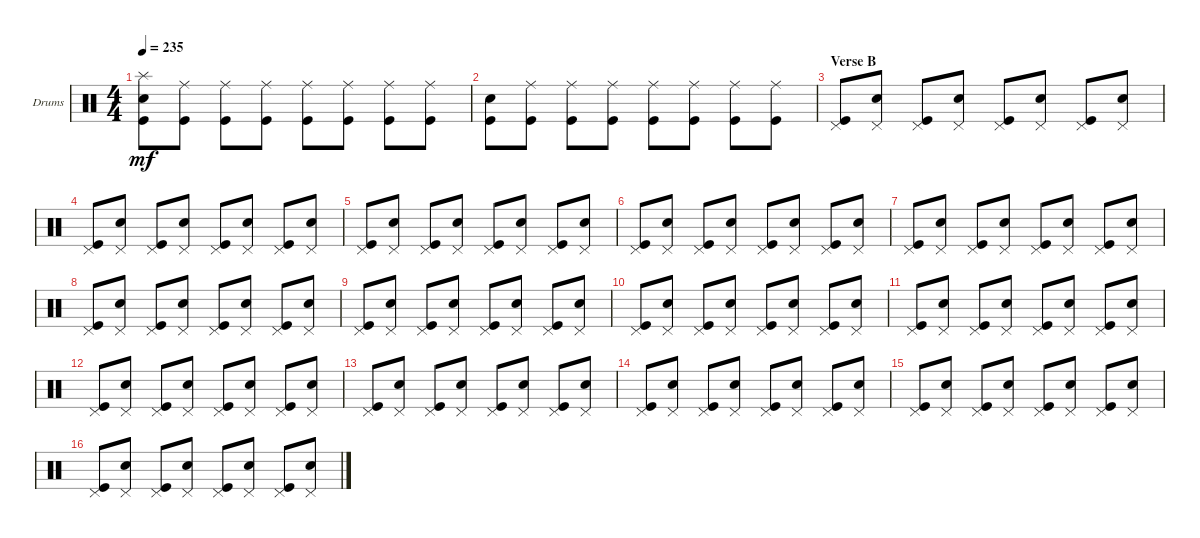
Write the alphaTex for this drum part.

\defaultSystemsLayout 4
\bracketExtendMode groupsimilarinstruments
\firstSystemTrackNameOrientation horizontal
\otherSystemsTrackNameOrientation horizontal
\track ("Drumkit" "Drums") {instrument percussion}
\staff {score}
\articulation defaults
\ts (4 4)
\tempo 235
\clef neutral
\scale
0.333333
\ks c
("Kick (hit)" "Snare (hit) 2" "Splash (hit)").8{dy mf} ("Kick (hit)" "Ride (middle)").8 ("Kick (hit)" "Ride (middle)").8 ("Kick (hit)" "Ride (middle)").8 ("Kick (hit)" "Ride (middle)").8 ("Kick (hit)" "Ride (middle)").8 ("Kick (hit)" "Ride (middle)").8 ("Kick (hit)" "Ride (middle)").8 |
\scale
0.333333 ("Kick (hit)" "Snare (hit) 2").8 ("Kick (hit)" "Ride (middle)").8 ("Kick (hit)" "Ride (middle)").8 ("Kick (hit)" "Ride (middle)").8 ("Kick (hit)" "Ride (middle)").8 ("Kick (hit)" "Ride (middle)").8 ("Kick (hit)" "Ride (middle)").8 ("Kick (hit)" "Ride (middle)").8 |
\section ("" "Verse B")
\scale
0.333333 ("Kick (hit)" "Pedal Hi-Hat (hit)").8 ("Snare (hit) 2" "Pedal Hi-Hat (hit)").8 ("Kick (hit)" "Pedal Hi-Hat (hit)").8 ("Snare (hit) 2" "Pedal Hi-Hat (hit)").8 ("Kick (hit)" "Pedal Hi-Hat (hit)").8 ("Snare (hit) 2" "Pedal Hi-Hat (hit)").8 ("Kick (hit)" "Pedal Hi-Hat (hit)").8 ("Snare (hit) 2" "Pedal Hi-Hat (hit)").8 |
\scale
0.333333 ("Kick (hit)" "Pedal Hi-Hat (hit)").8 ("Snare (hit) 2" "Pedal Hi-Hat (hit)").8 ("Kick (hit)" "Pedal Hi-Hat (hit)").8 ("Snare (hit) 2" "Pedal Hi-Hat (hit)").8 ("Kick (hit)" "Pedal Hi-Hat (hit)").8 ("Snare (hit) 2" "Pedal Hi-Hat (hit)").8 ("Kick (hit)" "Pedal Hi-Hat (hit)").8 ("Snare (hit) 2" "Pedal Hi-Hat (hit)").8 |
\scale
0.333333 ("Kick (hit)" "Pedal Hi-Hat (hit)").8 ("Snare (hit) 2" "Pedal Hi-Hat (hit)").8 ("Kick (hit)" "Pedal Hi-Hat (hit)").8 ("Snare (hit) 2" "Pedal Hi-Hat (hit)").8 ("Kick (hit)" "Pedal Hi-Hat (hit)").8 ("Snare (hit) 2" "Pedal Hi-Hat (hit)").8 ("Kick (hit)" "Pedal Hi-Hat (hit)").8 ("Snare (hit) 2" "Pedal Hi-Hat (hit)").8 |
\scale
0.333333 ("Kick (hit)" "Pedal Hi-Hat (hit)").8 ("Snare (hit) 2" "Pedal Hi-Hat (hit)").8 ("Kick (hit)" "Pedal Hi-Hat (hit)").8 ("Snare (hit) 2" "Pedal Hi-Hat (hit)").8 ("Kick (hit)" "Pedal Hi-Hat (hit)").8 ("Snare (hit) 2" "Pedal Hi-Hat (hit)").8 ("Kick (hit)" "Pedal Hi-Hat (hit)").8 ("Snare (hit) 2" "Pedal Hi-Hat (hit)").8 |
\scale
0.333333 ("Kick (hit)" "Pedal Hi-Hat (hit)").8 ("Snare (hit) 2" "Pedal Hi-Hat (hit)").8 ("Kick (hit)" "Pedal Hi-Hat (hit)").8 ("Snare (hit) 2" "Pedal Hi-Hat (hit)").8 ("Kick (hit)" "Pedal Hi-Hat (hit)").8 ("Snare (hit) 2" "Pedal Hi-Hat (hit)").8 ("Kick (hit)" "Pedal Hi-Hat (hit)").8 ("Snare (hit) 2" "Pedal Hi-Hat (hit)").8 |
\scale
0.333333 ("Kick (hit)" "Pedal Hi-Hat (hit)").8 ("Snare (hit) 2" "Pedal Hi-Hat (hit)").8 ("Kick (hit)" "Pedal Hi-Hat (hit)").8 ("Snare (hit) 2" "Pedal Hi-Hat (hit)").8 ("Kick (hit)" "Pedal Hi-Hat (hit)").8 ("Snare (hit) 2" "Pedal Hi-Hat (hit)").8 ("Kick (hit)" "Pedal Hi-Hat (hit)").8 ("Snare (hit) 2" "Pedal Hi-Hat (hit)").8 |
\scale
0.333333 ("Kick (hit)" "Pedal Hi-Hat (hit)").8 ("Snare (hit) 2" "Pedal Hi-Hat (hit)").8 ("Kick (hit)" "Pedal Hi-Hat (hit)").8 ("Snare (hit) 2" "Pedal Hi-Hat (hit)").8 ("Kick (hit)" "Pedal Hi-Hat (hit)").8 ("Snare (hit) 2" "Pedal Hi-Hat (hit)").8 ("Kick (hit)" "Pedal Hi-Hat (hit)").8 ("Snare (hit) 2" "Pedal Hi-Hat (hit)").8 |
\scale
0.333333 ("Kick (hit)" "Pedal Hi-Hat (hit)").8 ("Snare (hit) 2" "Pedal Hi-Hat (hit)").8 ("Kick (hit)" "Pedal Hi-Hat (hit)").8 ("Snare (hit) 2" "Pedal Hi-Hat (hit)").8 ("Kick (hit)" "Pedal Hi-Hat (hit)").8 ("Snare (hit) 2" "Pedal Hi-Hat (hit)").8 ("Kick (hit)" "Pedal Hi-Hat (hit)").8 ("Snare (hit) 2" "Pedal Hi-Hat (hit)").8 |
\scale
0.333333 ("Kick (hit)" "Pedal Hi-Hat (hit)").8 ("Snare (hit) 2" "Pedal Hi-Hat (hit)").8 ("Kick (hit)" "Pedal Hi-Hat (hit)").8 ("Snare (hit) 2" "Pedal Hi-Hat (hit)").8 ("Kick (hit)" "Pedal Hi-Hat (hit)").8 ("Snare (hit) 2" "Pedal Hi-Hat (hit)").8 ("Kick (hit)" "Pedal Hi-Hat (hit)").8 ("Snare (hit) 2" "Pedal Hi-Hat (hit)").8 |
\scale
0.333333 ("Kick (hit)" "Pedal Hi-Hat (hit)").8 ("Snare (hit) 2" "Pedal Hi-Hat (hit)").8 ("Kick (hit)" "Pedal Hi-Hat (hit)").8 ("Snare (hit) 2" "Pedal Hi-Hat (hit)").8 ("Kick (hit)" "Pedal Hi-Hat (hit)").8 ("Snare (hit) 2" "Pedal Hi-Hat (hit)").8 ("Kick (hit)" "Pedal Hi-Hat (hit)").8 ("Snare (hit) 2" "Pedal Hi-Hat (hit)").8 |
\scale
0.333333 ("Kick (hit)" "Pedal Hi-Hat (hit)").8 ("Snare (hit) 2" "Pedal Hi-Hat (hit)").8 ("Kick (hit)" "Pedal Hi-Hat (hit)").8 ("Snare (hit) 2" "Pedal Hi-Hat (hit)").8 ("Kick (hit)" "Pedal Hi-Hat (hit)").8 ("Snare (hit) 2" "Pedal Hi-Hat (hit)").8 ("Kick (hit)" "Pedal Hi-Hat (hit)").8 ("Snare (hit) 2" "Pedal Hi-Hat (hit)").8 |
\scale
0.333333 ("Kick (hit)" "Pedal Hi-Hat (hit)").8 ("Snare (hit) 2" "Pedal Hi-Hat (hit)").8 ("Kick (hit)" "Pedal Hi-Hat (hit)").8 ("Snare (hit) 2" "Pedal Hi-Hat (hit)").8 ("Kick (hit)" "Pedal Hi-Hat (hit)").8 ("Snare (hit) 2" "Pedal Hi-Hat (hit)").8 ("Kick (hit)" "Pedal Hi-Hat (hit)").8 ("Snare (hit) 2" "Pedal Hi-Hat (hit)").8 |
\scale
0.333333 ("Kick (hit)" "Pedal Hi-Hat (hit)").8 ("Snare (hit) 2" "Pedal Hi-Hat (hit)").8 ("Kick (hit)" "Pedal Hi-Hat (hit)").8 ("Snare (hit) 2" "Pedal Hi-Hat (hit)").8 ("Kick (hit)" "Pedal Hi-Hat (hit)").8 ("Snare (hit) 2" "Pedal Hi-Hat (hit)").8 ("Kick (hit)" "Pedal Hi-Hat (hit)").8 ("Snare (hit) 2" "Pedal Hi-Hat (hit)").8 |
\scale
0.333333 ("Kick (hit)" "Pedal Hi-Hat (hit)").8 ("Snare (hit) 2" "Pedal Hi-Hat (hit)").8 ("Kick (hit)" "Pedal Hi-Hat (hit)").8 ("Snare (hit) 2" "Pedal Hi-Hat (hit)").8 ("Kick (hit)" "Pedal Hi-Hat (hit)").8 ("Snare (hit) 2" "Pedal Hi-Hat (hit)").8 ("Kick (hit)" "Pedal Hi-Hat (hit)").8 ("Snare (hit) 2" "Pedal Hi-Hat (hit)").8
